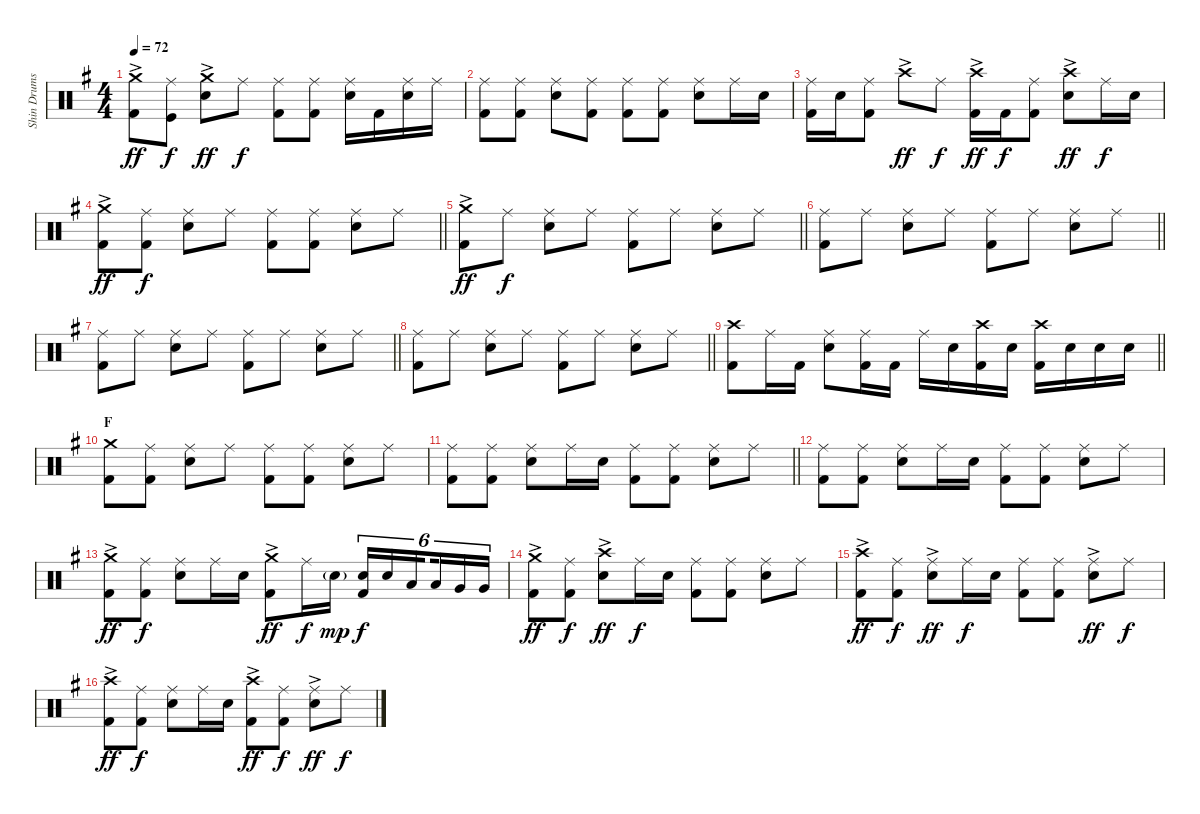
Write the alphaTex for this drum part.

\track ("Shin Drums" "Shin Drums") {instrument percussion}
\staff {score}
\articulation defaults
\ts (4 4)
\tempo 72
\clef neutral
\ks g
("Crash medium (hit)"{ac} "Kick (hit) 2").8{dy ff} ("Ride (middle)" "Kick (hit)").8{dy f} ("Crash medium (hit)"{ac} "Snare (hit) 2").8{dy ff} "Ride (middle)".8{dy f} ("Ride (middle)" "Kick (hit) 2").8 ("Ride (middle)" "Kick (hit) 2").8 ("Ride (middle)" "Snare (hit) 2").16 "Kick (hit) 2".16 ("Ride (middle)" "Snare (hit) 2").16 "Ride (middle)".16 |
("Ride (middle)" "Kick (hit) 2").8 ("Ride (middle)" "Kick (hit) 2").8 ("Ride (middle)" "Snare (hit) 2").8 ("Ride (middle)" "Kick (hit) 2").8 ("Ride (middle)" "Kick (hit) 2").8 ("Ride (middle)" "Kick (hit) 2").8 ("Ride (middle)" "Snare (hit) 2").8 "Ride (middle)".16 "Snare (hit) 2".16 |
("Ride (middle)" "Kick (hit) 2").16 "Snare (hit) 2".16 ("Ride (middle)" "Kick (hit) 2").8 "Crash high (hit)"{ac}.8{dy ff} "Ride (middle)".8{dy f} ("Crash high (hit)"{ac} "Kick (hit) 2").16{dy ff} "Kick (hit) 2".16{dy f} ("Ride (middle)" "Kick (hit) 2").8 ("Crash high (hit)"{ac} "Snare (hit) 2").8{dy ff} "Ride (middle)".16{dy f} "Snare (hit) 2".16 |
\barLineRight lightlight
("Crash medium (hit)"{ac} "Kick (hit) 2").8{dy ff} ("Ride (middle)" "Kick (hit) 2").8{dy f} ("Ride (middle)" "Snare (hit) 2").8 "Ride (middle)".8 ("Ride (middle)" "Kick (hit) 2").8 ("Ride (middle)" "Kick (hit) 2").8 ("Ride (middle)" "Snare (hit) 2").8 "Ride (middle)".8 |
\section ("" "")
\barLineRight lightlight
("Crash medium (hit)"{ac} "Kick (hit) 2").8{dy ff} "Ride (middle)".8{dy f} ("Ride (middle)" "Snare (hit) 2").8 "Ride (middle)".8 ("Ride (middle)" "Kick (hit) 2").8 "Ride (middle)".8 ("Ride (middle)" "Snare (hit) 2").8 "Ride (middle)".8 |
\barLineRight lightlight
("Ride (middle)" "Kick (hit) 2").8 "Ride (middle)".8 ("Ride (middle)" "Snare (hit) 2").8 "Ride (middle)".8 ("Ride (middle)" "Kick (hit) 2").8 "Ride (middle)".8 ("Ride (middle)" "Snare (hit) 2").8 "Ride (middle)".8 |
\barLineRight lightlight
("Ride (middle)" "Kick (hit) 2").8 "Ride (middle)".8 ("Ride (middle)" "Snare (hit) 2").8 "Ride (middle)".8 ("Ride (middle)" "Kick (hit) 2").8 "Ride (middle)".8 ("Ride (middle)" "Snare (hit) 2").8 "Ride (middle)".8 |
\barLineRight lightlight
("Ride (middle)" "Kick (hit) 2").8 "Ride (middle)".8 ("Ride (middle)" "Snare (hit) 2").8 "Ride (middle)".8 ("Ride (middle)" "Kick (hit) 2").8 "Ride (middle)".8 ("Ride (middle)" "Snare (hit) 2").8 "Ride (middle)".8 |
\barLineRight lightlight
("Crash high (hit)" "Kick (hit) 2").8 "Ride (middle)".16 "Kick (hit) 2".16 ("Ride (middle)" "Snare (hit) 2").8 ("Ride (middle)" "Kick (hit) 2").16 "Kick (hit) 2".16 "Ride (middle)".16 "Snare (hit) 2".16 ("Crash high (hit)" "Kick (hit) 2").16 "Snare (hit) 2".16 ("Crash high (hit)" "Kick (hit) 2").16 "Snare (hit) 2".16 "Snare (hit) 2".16 "Snare (hit) 2".16 |
\section ("" "F")
("Crash medium (hit)" "Kick (hit) 2").8 ("Ride (middle)" "Kick (hit) 2").8 ("Ride (middle)" "Snare (hit) 2").8 "Ride (middle)".8 ("Ride (middle)" "Kick (hit) 2").8 ("Ride (middle)" "Kick (hit) 2").8 ("Ride (middle)" "Snare (hit) 2").8 "Ride (middle)".8 |
\barLineRight lightlight
("Ride (middle)" "Kick (hit) 2").8 ("Ride (middle)" "Kick (hit) 2").8 ("Ride (middle)" "Snare (hit) 2").8 "Ride (middle)".16 "Snare (hit) 2".16 ("Ride (middle)" "Kick (hit) 2").8 ("Ride (middle)" "Kick (hit) 2").8 ("Ride (middle)" "Snare (hit) 2").8 "Ride (middle)".8 |
\section ("" "")
("Ride (middle)" "Kick (hit) 2").8 ("Ride (middle)" "Kick (hit) 2").8 ("Ride (middle)" "Snare (hit) 2").8 "Ride (middle)".16 "Snare (hit) 2".16 ("Ride (middle)" "Kick (hit) 2").8 ("Ride (middle)" "Kick (hit) 2").8 ("Ride (middle)" "Snare (hit) 2").8 "Ride (middle)".8 |
("Crash medium (hit)"{ac} "Kick (hit) 2").8{dy ff} ("Ride (middle)" "Kick (hit) 2").8{dy f} ("Ride (middle)" "Snare (hit) 2").8 "Ride (middle)".16 "Snare (hit) 2".16 ("Crash medium (hit)"{ac} "Kick (hit) 2").8{dy ff} "Ride (middle)".16{dy f} "Snare (hit) 2"{g}.16{dy mp} ("Snare (hit) 2" "Kick (hit) 2").16{tu (6 4) dy f} "Snare (hit) 2".16{tu (6 4)} "Low Tom (hit)".16{tu (6 4) beam splitsecondary} "Low Tom (hit)".16{tu (6 4)} "Very Low Tom (hit)".16{tu (6 4)} "Very Low Tom (hit)".16{tu (6 4)} |
("Crash medium (hit)"{ac} "Kick (hit) 2").8{dy ff} ("Ride (middle)" "Kick (hit) 2").8{dy f} ("Crash high (hit)"{ac} "Snare (hit) 2").8{dy ff} "Ride (middle)".16{dy f} "Snare (hit) 2".16 ("Ride (middle)" "Kick (hit) 2").8 ("Ride (middle)" "Kick (hit) 2").8 ("Ride (middle)" "Snare (hit) 2").8 "Ride (middle)".8 |
("Crash high (hit)"{ac} "Kick (hit) 2").8{dy ff} ("Ride (middle)" "Kick (hit) 2").8{dy f} ("Ride (middle)"{ac} "Snare (hit) 2").8{dy ff} "Ride (middle)".16{dy f} "Snare (hit) 2".16 ("Ride (middle)" "Kick (hit) 2").8 ("Ride (middle)" "Kick (hit) 2").8 ("Ride (middle)"{ac} "Snare (hit) 2").8{dy ff} "Ride (middle)".8{dy f} |
("Crash high (hit)"{ac} "Kick (hit) 2").8{dy ff} ("Ride (middle)" "Kick (hit) 2").8{dy f} ("Ride (middle)" "Snare (hit) 2").8 "Ride (middle)".16 "Snare (hit) 2".16 ("Crash high (hit)"{ac} "Kick (hit) 2").8{dy ff} ("Ride (middle)" "Kick (hit) 2").8{dy f} ("Ride (middle)"{ac} "Snare (hit) 2").8{dy ff} "Ride (middle)".8{dy f}
